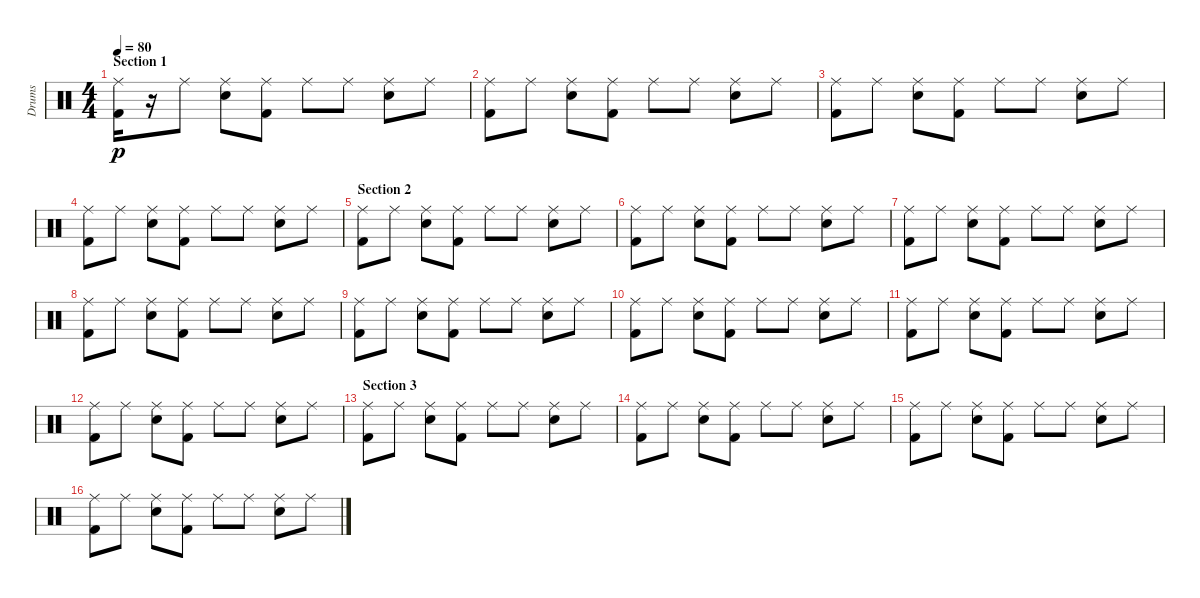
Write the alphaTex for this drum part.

\track ("Drums" "Drums") {instrument percussion}
\staff {score}
\articulation defaults
\ts (4 4)
\section ("" "Section 1")
\tempo 80
\clef neutral
\ks c
("Ride (middle)" "Kick (hit) 2").16{dy p volume 0} r.16{volume 7} "Ride (middle)".8 ("Ride (middle)" "Electric Snare (hit)").8 ("Ride (middle)" "Kick (hit) 2").8 "Ride (middle)".8 "Ride (middle)".8 ("Ride (middle)" "Electric Snare (hit)").8 "Ride (middle)".8 |
("Ride (middle)" "Kick (hit) 2").8 "Ride (middle)".8 ("Ride (middle)" "Electric Snare (hit)").8 ("Ride (middle)" "Kick (hit) 2").8 "Ride (middle)".8 "Ride (middle)".8 ("Ride (middle)" "Electric Snare (hit)").8 "Ride (middle)".8 |
("Ride (middle)" "Kick (hit) 2").8{volume 13} "Ride (middle)".8 ("Ride (middle)" "Electric Snare (hit)").8 ("Ride (middle)" "Kick (hit) 2").8 "Ride (middle)".8 "Ride (middle)".8 ("Ride (middle)" "Electric Snare (hit)").8 "Ride (middle)".8 |
("Ride (middle)" "Kick (hit) 2").8 "Ride (middle)".8 ("Ride (middle)" "Electric Snare (hit)").8 ("Ride (middle)" "Kick (hit) 2").8 "Ride (middle)".8 "Ride (middle)".8 ("Ride (middle)" "Electric Snare (hit)").8 "Ride (middle)".8 |
\section ("" "Section 2")
("Ride (middle)" "Kick (hit) 2").8 "Ride (middle)".8 ("Ride (middle)" "Electric Snare (hit)").8 ("Ride (middle)" "Kick (hit) 2").8 "Ride (middle)".8 "Ride (middle)".8 ("Ride (middle)" "Electric Snare (hit)").8 "Ride (middle)".8 |
("Ride (middle)" "Kick (hit) 2").8 "Ride (middle)".8 ("Ride (middle)" "Electric Snare (hit)").8 ("Ride (middle)" "Kick (hit) 2").8 "Ride (middle)".8 "Ride (middle)".8 ("Ride (middle)" "Electric Snare (hit)").8 "Ride (middle)".8 |
("Ride (middle)" "Kick (hit) 2").8 "Ride (middle)".8 ("Ride (middle)" "Electric Snare (hit)").8 ("Ride (middle)" "Kick (hit) 2").8 "Ride (middle)".8 "Ride (middle)".8 ("Ride (middle)" "Electric Snare (hit)").8 "Ride (middle)".8 |
("Ride (middle)" "Kick (hit) 2").8 "Ride (middle)".8 ("Ride (middle)" "Electric Snare (hit)").8 ("Ride (middle)" "Kick (hit) 2").8 "Ride (middle)".8 "Ride (middle)".8 ("Ride (middle)" "Electric Snare (hit)").8 "Ride (middle)".8 |
("Ride (middle)" "Kick (hit) 2").8 "Ride (middle)".8 ("Ride (middle)" "Electric Snare (hit)").8 ("Ride (middle)" "Kick (hit) 2").8 "Ride (middle)".8 "Ride (middle)".8 ("Ride (middle)" "Electric Snare (hit)").8 "Ride (middle)".8 |
("Ride (middle)" "Kick (hit) 2").8 "Ride (middle)".8 ("Ride (middle)" "Electric Snare (hit)").8 ("Ride (middle)" "Kick (hit) 2").8 "Ride (middle)".8 "Ride (middle)".8 ("Ride (middle)" "Electric Snare (hit)").8 "Ride (middle)".8 |
("Ride (middle)" "Kick (hit) 2").8 "Ride (middle)".8 ("Ride (middle)" "Electric Snare (hit)").8 ("Ride (middle)" "Kick (hit) 2").8 "Ride (middle)".8 "Ride (middle)".8 ("Ride (middle)" "Electric Snare (hit)").8 "Ride (middle)".8 |
("Ride (middle)" "Kick (hit) 2").8 "Ride (middle)".8 ("Ride (middle)" "Electric Snare (hit)").8 ("Ride (middle)" "Kick (hit) 2").8 "Ride (middle)".8 "Ride (middle)".8 ("Ride (middle)" "Electric Snare (hit)").8 "Ride (middle)".8 |
\section ("" "Section 3")
("Ride (middle)" "Kick (hit) 2").8 "Ride (middle)".8 ("Ride (middle)" "Electric Snare (hit)").8 ("Ride (middle)" "Kick (hit) 2").8 "Ride (middle)".8 "Ride (middle)".8 ("Ride (middle)" "Electric Snare (hit)").8 "Ride (middle)".8 |
("Ride (middle)" "Kick (hit) 2").8 "Ride (middle)".8 ("Ride (middle)" "Electric Snare (hit)").8 ("Ride (middle)" "Kick (hit) 2").8 "Ride (middle)".8 "Ride (middle)".8 ("Ride (middle)" "Electric Snare (hit)").8 "Ride (middle)".8 |
("Ride (middle)" "Kick (hit) 2").8 "Ride (middle)".8 ("Ride (middle)" "Electric Snare (hit)").8 ("Ride (middle)" "Kick (hit) 2").8 "Ride (middle)".8 "Ride (middle)".8 ("Ride (middle)" "Electric Snare (hit)").8 "Ride (middle)".8 |
("Ride (middle)" "Kick (hit) 2").8 "Ride (middle)".8 ("Ride (middle)" "Electric Snare (hit)").8 ("Ride (middle)" "Kick (hit) 2").8 "Ride (middle)".8 "Ride (middle)".8 ("Ride (middle)" "Electric Snare (hit)").8 "Ride (middle)".8
